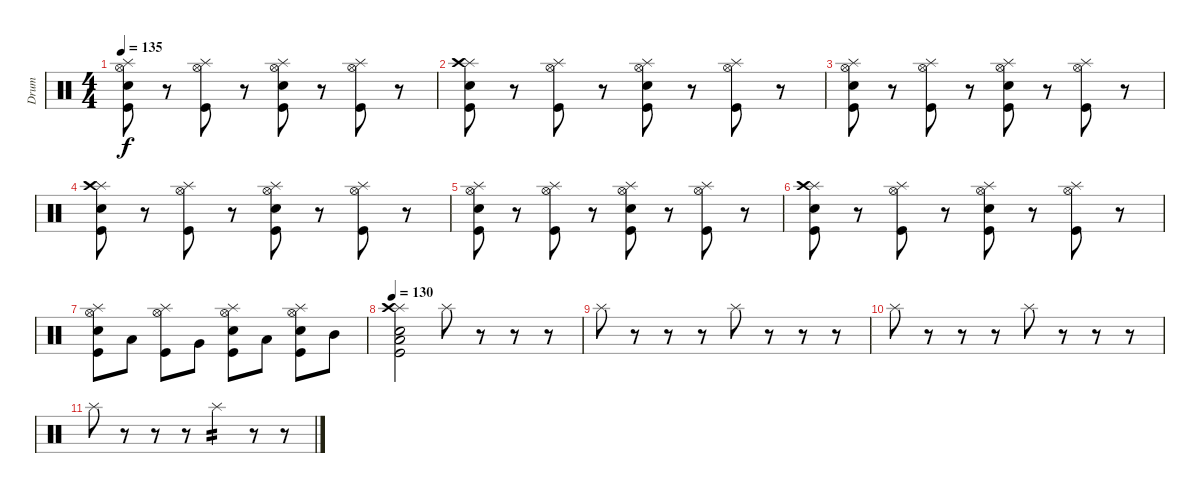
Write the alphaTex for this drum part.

\track ("Drum" "Drum") {instrument percussion}
\staff {score}
\articulation defaults
\ts (4 4)
\tempo 135
\clef neutral
\ks c
("Splash (hit)" "Hi-Hat (open)" "Snare (hit) 2" "Kick (hit)").8{dy f} r.8 ("Splash (hit)" "Hi-Hat (open)" "Kick (hit)").8 r.8 ("Splash (hit)" "Hi-Hat (open)" "Snare (hit) 2" "Kick (hit)").8 r.8 ("Splash (hit)" "Hi-Hat (open)" "Kick (hit)").8 r.8 |
("Splash (hit)" "Crash high (hit)" "Snare (hit) 2" "Kick (hit)").8 r.8 ("Splash (hit)" "Hi-Hat (open)" "Kick (hit)").8 r.8 ("Splash (hit)" "Hi-Hat (open)" "Snare (hit) 2" "Kick (hit)").8 r.8 ("Splash (hit)" "Hi-Hat (open)" "Kick (hit)").8 r.8 |
("Splash (hit)" "Hi-Hat (open)" "Snare (hit) 2" "Kick (hit)").8 r.8 ("Splash (hit)" "Hi-Hat (open)" "Kick (hit)").8 r.8 ("Splash (hit)" "Hi-Hat (open)" "Snare (hit) 2" "Kick (hit)").8 r.8 ("Splash (hit)" "Hi-Hat (open)" "Kick (hit)").8 r.8 |
("Splash (hit)" "Crash high (hit)" "Snare (hit) 2" "Kick (hit)").8 r.8 ("Splash (hit)" "Hi-Hat (open)" "Kick (hit)").8 r.8 ("Splash (hit)" "Hi-Hat (open)" "Snare (hit) 2" "Kick (hit)").8 r.8 ("Splash (hit)" "Hi-Hat (open)" "Kick (hit)").8 r.8 |
("Splash (hit)" "Hi-Hat (open)" "Snare (hit) 2" "Kick (hit)").8 r.8 ("Splash (hit)" "Hi-Hat (open)" "Kick (hit)").8 r.8 ("Splash (hit)" "Hi-Hat (open)" "Snare (hit) 2" "Kick (hit)").8 r.8 ("Splash (hit)" "Hi-Hat (open)" "Kick (hit)").8 r.8 |
("Splash (hit)" "Crash high (hit)" "Snare (hit) 2" "Kick (hit)").8 r.8 ("Splash (hit)" "Hi-Hat (open)" "Kick (hit)").8 r.8 ("Splash (hit)" "Hi-Hat (open)" "Snare (hit) 2" "Kick (hit)").8 r.8 ("Splash (hit)" "Hi-Hat (open)" "Kick (hit)").8 r.8 |
("Splash (hit)" "Hi-Hat (open)" "Snare (hit) 2" "Kick (hit)").8 "Low Floor Tom (hit)".8 ("Splash (hit)" "Hi-Hat (open)" "Kick (hit)").8 "Very Low Tom (hit)".8 ("Splash (hit)" "Hi-Hat (open)" "Snare (hit) 2" "Kick (hit)").8 "Low Tom (hit)".8 ("Splash (hit)" "Hi-Hat (open)" "Snare (hit) 2" "Kick (hit)").8 "Mid Tom (hit)".8 |
\tempo 130
("Splash (hit)" "Crash high (hit)" "Snare (hit) 2" "Low Tom (hit)" "Kick (hit)").2 "Splash (hit)".8 r.8 r.8 r.8 |
"Splash (hit)".8 r.8 r.8 r.8 "Splash (hit)".8 r.8 r.8 r.8 |
"Splash (hit)".8 r.8 r.8 r.8 "Splash (hit)".8 r.8 r.8 r.8 |
"Splash (hit)".8 r.8 r.8 r.8 "Splash (hit)".4{tp 2} r.8 r.8
